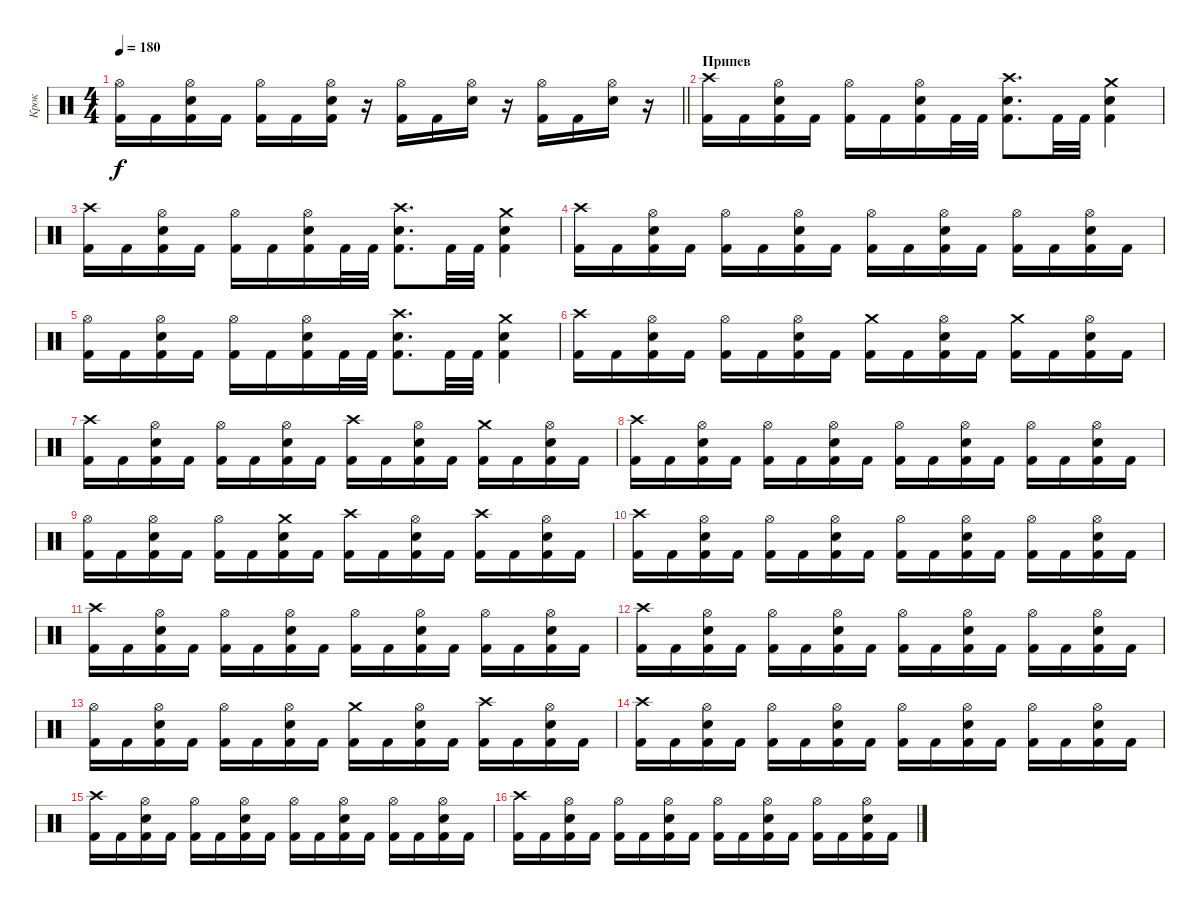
\track ("Крок" "Крок") {instrument percussion}
\staff {score}
\articulation defaults
\ts (4 4)
\tempo 180
\clef neutral
\barLineRight lightlight
\ks c
("Kick (hit) 2" "Hi-Hat (open)").16{dy f} "Kick (hit) 2".16 ("Kick (hit) 2" "Electric Snare (hit)" "Hi-Hat (open)").16 "Kick (hit) 2".16 ("Kick (hit) 2" "Hi-Hat (open)").16 "Kick (hit) 2".16 ("Kick (hit) 2" "Electric Snare (hit)" "Hi-Hat (open)").16 r.16 ("Kick (hit) 2" "Hi-Hat (open)").16 "Kick (hit) 2".16 ("Electric Snare (hit)" "Hi-Hat (open)").16 r.16 ("Kick (hit) 2" "Hi-Hat (open)").16 "Kick (hit) 2".16 ("Electric Snare (hit)" "Hi-Hat (open)").16 r.16 |
\section ("" "Припев")
("Kick (hit) 2" "Crash high (hit)").16 "Kick (hit) 2".16 ("Kick (hit) 2" "Electric Snare (hit)" "Hi-Hat (open)").16 "Kick (hit) 2".16 ("Kick (hit) 2" "Hi-Hat (open)").16 "Kick (hit) 2".16 ("Kick (hit) 2" "Electric Snare (hit)" "Hi-Hat (open)").16 "Kick (hit) 2".32 "Kick (hit) 2".32 ("Electric Snare (hit)" "Kick (hit) 2" "Crash high (hit)").8{d} "Kick (hit) 2".32 "Kick (hit) 2".32 ("Electric Snare (hit)" "Kick (hit) 2" "Crash medium (hit)").4 |
("Kick (hit) 2" "Crash high (hit)").16 "Kick (hit) 2".16 ("Kick (hit) 2" "Electric Snare (hit)" "Hi-Hat (open)").16 "Kick (hit) 2".16 ("Kick (hit) 2" "Hi-Hat (open)").16 "Kick (hit) 2".16 ("Kick (hit) 2" "Electric Snare (hit)" "Hi-Hat (open)").16 "Kick (hit) 2".32 "Kick (hit) 2".32 ("Electric Snare (hit)" "Kick (hit) 2" "Crash high (hit)").8{d} "Kick (hit) 2".32 "Kick (hit) 2".32 ("Electric Snare (hit)" "Kick (hit) 2" "Crash medium (hit)").4 |
("Kick (hit) 2" "Crash high (hit)").16 "Kick (hit) 2".16 ("Kick (hit) 2" "Electric Snare (hit)" "Hi-Hat (open)").16 "Kick (hit) 2".16 ("Kick (hit) 2" "Hi-Hat (open)").16 "Kick (hit) 2".16 ("Kick (hit) 2" "Electric Snare (hit)" "Hi-Hat (open)").16 "Kick (hit) 2".16 ("Kick (hit) 2" "Hi-Hat (open)").16 "Kick (hit) 2".16 ("Kick (hit) 2" "Electric Snare (hit)" "Hi-Hat (open)").16 "Kick (hit) 2".16 ("Kick (hit) 2" "Hi-Hat (open)").16 "Kick (hit) 2".16 ("Kick (hit) 2" "Electric Snare (hit)" "Hi-Hat (open)").16 "Kick (hit) 2".16 |
("Kick (hit) 2" "Hi-Hat (open)").16 "Kick (hit) 2".16 ("Kick (hit) 2" "Electric Snare (hit)" "Hi-Hat (open)").16 "Kick (hit) 2".16 ("Kick (hit) 2" "Hi-Hat (open)").16 "Kick (hit) 2".16 ("Kick (hit) 2" "Electric Snare (hit)" "Hi-Hat (open)").16 "Kick (hit) 2".32 "Kick (hit) 2".32 ("Electric Snare (hit)" "Kick (hit) 2" "Crash high (hit)").8{d} "Kick (hit) 2".32 "Kick (hit) 2".32 ("Electric Snare (hit)" "Kick (hit) 2" "Crash medium (hit)").4 |
("Kick (hit) 2" "Crash high (hit)").16 "Kick (hit) 2".16 ("Kick (hit) 2" "Electric Snare (hit)" "Hi-Hat (open)").16 "Kick (hit) 2".16 ("Kick (hit) 2" "Hi-Hat (open)").16 "Kick (hit) 2".16 ("Kick (hit) 2" "Electric Snare (hit)" "Hi-Hat (open)").16 "Kick (hit) 2".16 ("Kick (hit) 2" "Crash medium (hit)").16 "Kick (hit) 2".16 ("Kick (hit) 2" "Electric Snare (hit)" "Hi-Hat (open)").16 "Kick (hit) 2".16 ("Kick (hit) 2" "Crash medium (hit)").16 "Kick (hit) 2".16 ("Kick (hit) 2" "Electric Snare (hit)" "Hi-Hat (open)").16 "Kick (hit) 2".16 |
("Kick (hit) 2" "Crash high (hit)").16 "Kick (hit) 2".16 ("Kick (hit) 2" "Electric Snare (hit)" "Hi-Hat (open)").16 "Kick (hit) 2".16 ("Kick (hit) 2" "Hi-Hat (open)").16 "Kick (hit) 2".16 ("Kick (hit) 2" "Electric Snare (hit)" "Hi-Hat (open)").16 "Kick (hit) 2".16 ("Kick (hit) 2" "Crash high (hit)").16 "Kick (hit) 2".16 ("Kick (hit) 2" "Electric Snare (hit)" "Hi-Hat (open)").16 "Kick (hit) 2".16 ("Kick (hit) 2" "Crash medium (hit)").16 "Kick (hit) 2".16 ("Kick (hit) 2" "Electric Snare (hit)" "Hi-Hat (open)").16 "Kick (hit) 2".16 |
("Kick (hit) 2" "Crash high (hit)").16 "Kick (hit) 2".16 ("Kick (hit) 2" "Electric Snare (hit)" "Hi-Hat (open)").16 "Kick (hit) 2".16 ("Kick (hit) 2" "Hi-Hat (open)").16 "Kick (hit) 2".16 ("Kick (hit) 2" "Electric Snare (hit)" "Hi-Hat (open)").16 "Kick (hit) 2".16 ("Kick (hit) 2" "Hi-Hat (open)").16 "Kick (hit) 2".16 ("Kick (hit) 2" "Electric Snare (hit)" "Hi-Hat (open)").16 "Kick (hit) 2".16 ("Kick (hit) 2" "Hi-Hat (open)").16 "Kick (hit) 2".16 ("Kick (hit) 2" "Electric Snare (hit)" "Hi-Hat (open)").16 "Kick (hit) 2".16 |
("Kick (hit) 2" "Hi-Hat (open)").16 "Kick (hit) 2".16 ("Kick (hit) 2" "Electric Snare (hit)" "Hi-Hat (open)").16 "Kick (hit) 2".16 ("Kick (hit) 2" "Hi-Hat (open)").16 "Kick (hit) 2".16 ("Kick (hit) 2" "Electric Snare (hit)" "Crash medium (hit)").16 "Kick (hit) 2".16 ("Kick (hit) 2" "Crash high (hit)").16 "Kick (hit) 2".16 ("Kick (hit) 2" "Electric Snare (hit)" "Hi-Hat (open)").16 "Kick (hit) 2".16 ("Kick (hit) 2" "Crash high (hit)").16 "Kick (hit) 2".16 ("Kick (hit) 2" "Electric Snare (hit)" "Hi-Hat (open)").16 "Kick (hit) 2".16 |
("Kick (hit) 2" "Crash high (hit)").16 "Kick (hit) 2".16 ("Kick (hit) 2" "Electric Snare (hit)" "Hi-Hat (open)").16 "Kick (hit) 2".16 ("Kick (hit) 2" "Hi-Hat (open)").16 "Kick (hit) 2".16 ("Kick (hit) 2" "Electric Snare (hit)" "Hi-Hat (open)").16 "Kick (hit) 2".16 ("Kick (hit) 2" "Hi-Hat (open)").16 "Kick (hit) 2".16 ("Kick (hit) 2" "Electric Snare (hit)" "Hi-Hat (open)").16 "Kick (hit) 2".16 ("Kick (hit) 2" "Hi-Hat (open)").16 "Kick (hit) 2".16 ("Kick (hit) 2" "Electric Snare (hit)" "Hi-Hat (open)").16 "Kick (hit) 2".16 |
("Kick (hit) 2" "Crash high (hit)").16 "Kick (hit) 2".16 ("Kick (hit) 2" "Electric Snare (hit)" "Hi-Hat (open)").16 "Kick (hit) 2".16 ("Kick (hit) 2" "Hi-Hat (open)").16 "Kick (hit) 2".16 ("Kick (hit) 2" "Electric Snare (hit)" "Hi-Hat (open)").16 "Kick (hit) 2".16 ("Kick (hit) 2" "Hi-Hat (open)").16 "Kick (hit) 2".16 ("Kick (hit) 2" "Electric Snare (hit)" "Hi-Hat (open)").16 "Kick (hit) 2".16 ("Kick (hit) 2" "Hi-Hat (open)").16 "Kick (hit) 2".16 ("Kick (hit) 2" "Electric Snare (hit)" "Hi-Hat (open)").16 "Kick (hit) 2".16 |
("Kick (hit) 2" "Crash high (hit)").16 "Kick (hit) 2".16 ("Kick (hit) 2" "Electric Snare (hit)" "Hi-Hat (open)").16 "Kick (hit) 2".16 ("Kick (hit) 2" "Hi-Hat (open)").16 "Kick (hit) 2".16 ("Kick (hit) 2" "Electric Snare (hit)" "Hi-Hat (open)").16 "Kick (hit) 2".16 ("Kick (hit) 2" "Hi-Hat (open)").16 "Kick (hit) 2".16 ("Kick (hit) 2" "Electric Snare (hit)" "Hi-Hat (open)").16 "Kick (hit) 2".16 ("Kick (hit) 2" "Hi-Hat (open)").16 "Kick (hit) 2".16 ("Kick (hit) 2" "Electric Snare (hit)" "Hi-Hat (open)").16 "Kick (hit) 2".16 |
("Kick (hit) 2" "Hi-Hat (open)").16 "Kick (hit) 2".16 ("Kick (hit) 2" "Electric Snare (hit)" "Hi-Hat (open)").16 "Kick (hit) 2".16 ("Kick (hit) 2" "Hi-Hat (open)").16 "Kick (hit) 2".16 ("Kick (hit) 2" "Electric Snare (hit)" "Hi-Hat (open)").16 "Kick (hit) 2".16 ("Kick (hit) 2" "Crash medium (hit)").16 "Kick (hit) 2".16 ("Kick (hit) 2" "Electric Snare (hit)" "Hi-Hat (open)").16 "Kick (hit) 2".16 ("Kick (hit) 2" "Crash high (hit)").16 "Kick (hit) 2".16 ("Kick (hit) 2" "Electric Snare (hit)" "Hi-Hat (open)").16 "Kick (hit) 2".16 |
("Kick (hit) 2" "Crash high (hit)").16 "Kick (hit) 2".16 ("Kick (hit) 2" "Electric Snare (hit)" "Hi-Hat (open)").16 "Kick (hit) 2".16 ("Kick (hit) 2" "Hi-Hat (open)").16 "Kick (hit) 2".16 ("Kick (hit) 2" "Electric Snare (hit)" "Hi-Hat (open)").16 "Kick (hit) 2".16 ("Kick (hit) 2" "Hi-Hat (open)").16 "Kick (hit) 2".16 ("Kick (hit) 2" "Electric Snare (hit)" "Hi-Hat (open)").16 "Kick (hit) 2".16 ("Kick (hit) 2" "Hi-Hat (open)").16 "Kick (hit) 2".16 ("Kick (hit) 2" "Electric Snare (hit)" "Hi-Hat (open)").16 "Kick (hit) 2".16 |
("Kick (hit) 2" "Crash high (hit)").16 "Kick (hit) 2".16 ("Kick (hit) 2" "Electric Snare (hit)" "Hi-Hat (open)").16 "Kick (hit) 2".16 ("Kick (hit) 2" "Hi-Hat (open)").16 "Kick (hit) 2".16 ("Kick (hit) 2" "Electric Snare (hit)" "Hi-Hat (open)").16 "Kick (hit) 2".16 ("Kick (hit) 2" "Hi-Hat (open)").16 "Kick (hit) 2".16 ("Kick (hit) 2" "Electric Snare (hit)" "Hi-Hat (open)").16 "Kick (hit) 2".16 ("Kick (hit) 2" "Hi-Hat (open)").16 "Kick (hit) 2".16 ("Kick (hit) 2" "Electric Snare (hit)" "Hi-Hat (open)").16 "Kick (hit) 2".16 |
("Kick (hit) 2" "Crash high (hit)").16 "Kick (hit) 2".16 ("Kick (hit) 2" "Electric Snare (hit)" "Hi-Hat (open)").16 "Kick (hit) 2".16 ("Kick (hit) 2" "Hi-Hat (open)").16 "Kick (hit) 2".16 ("Kick (hit) 2" "Electric Snare (hit)" "Hi-Hat (open)").16 "Kick (hit) 2".16 ("Kick (hit) 2" "Hi-Hat (open)").16 "Kick (hit) 2".16 ("Kick (hit) 2" "Electric Snare (hit)" "Hi-Hat (open)").16 "Kick (hit) 2".16 ("Kick (hit) 2" "Hi-Hat (open)").16 "Kick (hit) 2".16 ("Kick (hit) 2" "Electric Snare (hit)" "Hi-Hat (open)").16 "Kick (hit) 2".16
